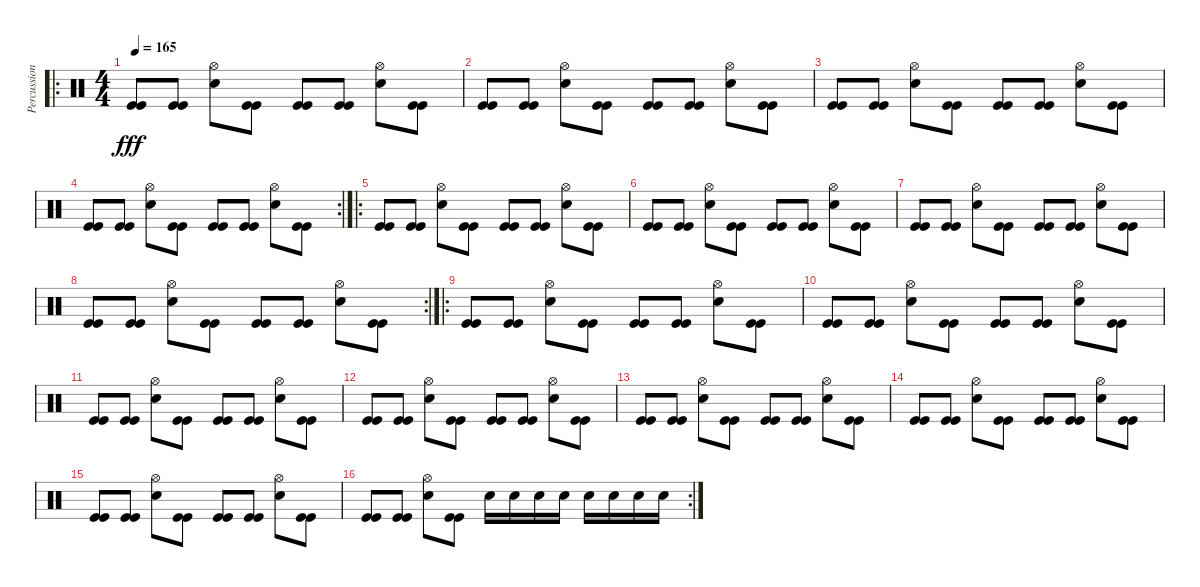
\track ("Percussions" "Percussion") {instrument percussion}
\staff {score}
\articulation defaults
\ro
\ts (4 4)
\tempo 165
\clef neutral
\ks c
("Kick (hit)" "Kick (hit)").8{dy fff} ("Kick (hit)" "Kick (hit)").8 ("Snare (hit) 2" "Hi-Hat (open)").8 ("Kick (hit)" "Kick (hit)").8 ("Kick (hit)" "Kick (hit)").8 ("Kick (hit)" "Kick (hit)").8 ("Snare (hit) 2" "Hi-Hat (open)").8 ("Kick (hit)" "Kick (hit)").8 |
("Kick (hit)" "Kick (hit)").8 ("Kick (hit)" "Kick (hit)").8 ("Snare (hit) 2" "Hi-Hat (open)").8 ("Kick (hit)" "Kick (hit)").8 ("Kick (hit)" "Kick (hit)").8 ("Kick (hit)" "Kick (hit)").8 ("Snare (hit) 2" "Hi-Hat (open)").8 ("Kick (hit)" "Kick (hit)").8 |
("Kick (hit)" "Kick (hit)").8 ("Kick (hit)" "Kick (hit)").8 ("Snare (hit) 2" "Hi-Hat (open)").8 ("Kick (hit)" "Kick (hit)").8 ("Kick (hit)" "Kick (hit)").8 ("Kick (hit)" "Kick (hit)").8 ("Snare (hit) 2" "Hi-Hat (open)").8 ("Kick (hit)" "Kick (hit)").8 |
\rc 2
("Kick (hit)" "Kick (hit)").8 ("Kick (hit)" "Kick (hit)").8 ("Snare (hit) 2" "Hi-Hat (open)").8 ("Kick (hit)" "Kick (hit)").8 ("Kick (hit)" "Kick (hit)").8 ("Kick (hit)" "Kick (hit)").8 ("Snare (hit) 2" "Hi-Hat (open)").8 ("Kick (hit)" "Kick (hit)").8 |
\ro
("Kick (hit)" "Kick (hit)").8 ("Kick (hit)" "Kick (hit)").8 ("Snare (hit) 2" "Hi-Hat (open)").8 ("Kick (hit)" "Kick (hit)").8 ("Kick (hit)" "Kick (hit)").8 ("Kick (hit)" "Kick (hit)").8 ("Snare (hit) 2" "Hi-Hat (open)").8 ("Kick (hit)" "Kick (hit)").8 |
("Kick (hit)" "Kick (hit)").8 ("Kick (hit)" "Kick (hit)").8 ("Snare (hit) 2" "Hi-Hat (open)").8 ("Kick (hit)" "Kick (hit)").8 ("Kick (hit)" "Kick (hit)").8 ("Kick (hit)" "Kick (hit)").8 ("Snare (hit) 2" "Hi-Hat (open)").8 ("Kick (hit)" "Kick (hit)").8 |
("Kick (hit)" "Kick (hit)").8 ("Kick (hit)" "Kick (hit)").8 ("Snare (hit) 2" "Hi-Hat (open)").8 ("Kick (hit)" "Kick (hit)").8 ("Kick (hit)" "Kick (hit)").8 ("Kick (hit)" "Kick (hit)").8 ("Snare (hit) 2" "Hi-Hat (open)").8 ("Kick (hit)" "Kick (hit)").8 |
\rc 2
("Kick (hit)" "Kick (hit)").8 ("Kick (hit)" "Kick (hit)").8 ("Snare (hit) 2" "Hi-Hat (open)").8 ("Kick (hit)" "Kick (hit)").8 ("Kick (hit)" "Kick (hit)").8 ("Kick (hit)" "Kick (hit)").8 ("Snare (hit) 2" "Hi-Hat (open)").8 ("Kick (hit)" "Kick (hit)").8 |
\ro
("Kick (hit)" "Kick (hit)").8 ("Kick (hit)" "Kick (hit)").8 ("Snare (hit) 2" "Hi-Hat (open)").8 ("Kick (hit)" "Kick (hit)").8 ("Kick (hit)" "Kick (hit)").8 ("Kick (hit)" "Kick (hit)").8 ("Snare (hit) 2" "Hi-Hat (open)").8 ("Kick (hit)" "Kick (hit)").8 |
("Kick (hit)" "Kick (hit)").8 ("Kick (hit)" "Kick (hit)").8 ("Snare (hit) 2" "Hi-Hat (open)").8 ("Kick (hit)" "Kick (hit)").8 ("Kick (hit)" "Kick (hit)").8 ("Kick (hit)" "Kick (hit)").8 ("Snare (hit) 2" "Hi-Hat (open)").8 ("Kick (hit)" "Kick (hit)").8 |
("Kick (hit)" "Kick (hit)").8 ("Kick (hit)" "Kick (hit)").8 ("Snare (hit) 2" "Hi-Hat (open)").8 ("Kick (hit)" "Kick (hit)").8 ("Kick (hit)" "Kick (hit)").8 ("Kick (hit)" "Kick (hit)").8 ("Snare (hit) 2" "Hi-Hat (open)").8 ("Kick (hit)" "Kick (hit)").8 |
("Kick (hit)" "Kick (hit)").8 ("Kick (hit)" "Kick (hit)").8 ("Snare (hit) 2" "Hi-Hat (open)").8 ("Kick (hit)" "Kick (hit)").8 ("Kick (hit)" "Kick (hit)").8 ("Kick (hit)" "Kick (hit)").8 ("Snare (hit) 2" "Hi-Hat (open)").8 ("Kick (hit)" "Kick (hit)").8 |
("Kick (hit)" "Kick (hit)").8 ("Kick (hit)" "Kick (hit)").8 ("Snare (hit) 2" "Hi-Hat (open)").8 ("Kick (hit)" "Kick (hit)").8 ("Kick (hit)" "Kick (hit)").8 ("Kick (hit)" "Kick (hit)").8 ("Snare (hit) 2" "Hi-Hat (open)").8 ("Kick (hit)" "Kick (hit)").8 |
("Kick (hit)" "Kick (hit)").8 ("Kick (hit)" "Kick (hit)").8 ("Snare (hit) 2" "Hi-Hat (open)").8 ("Kick (hit)" "Kick (hit)").8 ("Kick (hit)" "Kick (hit)").8 ("Kick (hit)" "Kick (hit)").8 ("Snare (hit) 2" "Hi-Hat (open)").8 ("Kick (hit)" "Kick (hit)").8 |
("Kick (hit)" "Kick (hit)").8 ("Kick (hit)" "Kick (hit)").8 ("Snare (hit) 2" "Hi-Hat (open)").8 ("Kick (hit)" "Kick (hit)").8 ("Kick (hit)" "Kick (hit)").8 ("Kick (hit)" "Kick (hit)").8 ("Snare (hit) 2" "Hi-Hat (open)").8 ("Kick (hit)" "Kick (hit)").8 |
\rc 2
("Kick (hit)" "Kick (hit)").8 ("Kick (hit)" "Kick (hit)").8 ("Snare (hit) 2" "Hi-Hat (open)").8 ("Kick (hit)" "Kick (hit)").8 "Snare (hit) 2".16 "Snare (hit) 2".16 "Snare (hit) 2".16 "Snare (hit) 2".16 "Snare (hit) 2".16 "Snare (hit) 2".16 "Snare (hit) 2".16 "Snare (hit) 2".16
